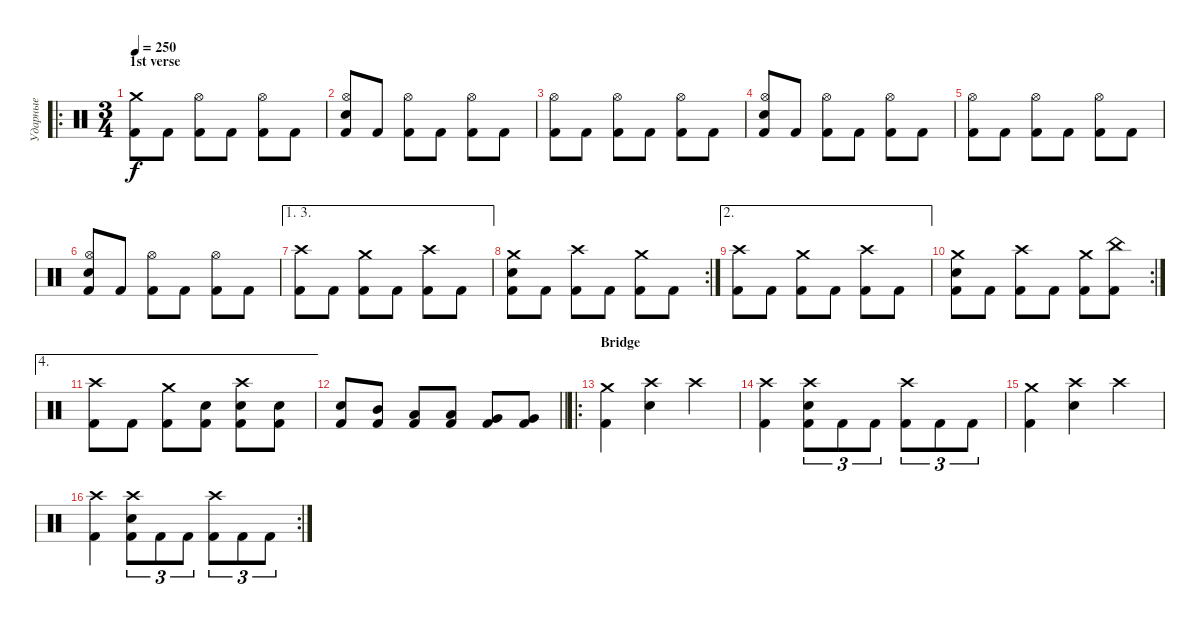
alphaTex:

\track ("Ударные" "Ударные") {instrument percussion}
\staff {score}
\articulation defaults
\ro
\ts (3 4)
\section ("" "1st verse")
\tempo 250
\clef neutral
\ks c
("Crash medium (hit)" "Kick (hit) 2").8{dy f} "Kick (hit) 2".8 ("Hi-Hat (open)" "Kick (hit) 2").8 "Kick (hit) 2".8 ("Hi-Hat (open)" "Kick (hit) 2").8 "Kick (hit) 2".8 |
("Electric Snare (hit)" "Hi-Hat (open)" "Kick (hit) 2").8 "Kick (hit) 2".8 ("Hi-Hat (open)" "Kick (hit) 2").8 "Kick (hit) 2".8 ("Hi-Hat (open)" "Kick (hit) 2").8 "Kick (hit) 2".8 |
("Hi-Hat (open)" "Kick (hit) 2").8 "Kick (hit) 2".8 ("Hi-Hat (open)" "Kick (hit) 2").8 "Kick (hit) 2".8 ("Hi-Hat (open)" "Kick (hit) 2").8 "Kick (hit) 2".8 |
("Electric Snare (hit)" "Hi-Hat (open)" "Kick (hit) 2").8 "Kick (hit) 2".8 ("Hi-Hat (open)" "Kick (hit) 2").8 "Kick (hit) 2".8 ("Hi-Hat (open)" "Kick (hit) 2").8 "Kick (hit) 2".8 |
("Hi-Hat (open)" "Kick (hit) 2").8 "Kick (hit) 2".8 ("Hi-Hat (open)" "Kick (hit) 2").8 "Kick (hit) 2".8 ("Hi-Hat (open)" "Kick (hit) 2").8 "Kick (hit) 2".8 |
("Electric Snare (hit)" "Hi-Hat (open)" "Kick (hit) 2").8 "Kick (hit) 2".8 ("Hi-Hat (open)" "Kick (hit) 2").8 "Kick (hit) 2".8 ("Hi-Hat (open)" "Kick (hit) 2").8 "Kick (hit) 2".8 |
\ae (1 3)
("Crash high (hit)" "Kick (hit) 2").8 "Kick (hit) 2".8 ("Crash medium (hit)" "Kick (hit) 2").8 "Kick (hit) 2".8 ("Crash high (hit)" "Kick (hit) 2").8 "Kick (hit) 2".8 |
\rc 2
("Electric Snare (hit)" "Crash medium (hit)" "Kick (hit) 2").8 "Kick (hit) 2".8 ("Crash high (hit)" "Kick (hit) 2").8 "Kick (hit) 2".8 ("Crash medium (hit)" "Kick (hit) 2").8 "Kick (hit) 2".8 |
\ae 2
("Crash high (hit)" "Kick (hit) 2").8 "Kick (hit) 2".8 ("Crash medium (hit)" "Kick (hit) 2").8 "Kick (hit) 2".8 ("Crash high (hit)" "Kick (hit) 2").8 "Kick (hit) 2".8 |
\rc 2
("Electric Snare (hit)" "Crash medium (hit)" "Kick (hit) 2").8 "Kick (hit) 2".8 ("Crash high (hit)" "Kick (hit) 2").8 "Kick (hit) 2".8 ("Crash medium (hit)" "Kick (hit) 2").8 ("China (hit)" "Kick (hit) 2").8 |
\ae 4
("Crash high (hit)" "Kick (hit) 2").8 "Kick (hit) 2".8 ("Crash medium (hit)" "Kick (hit) 2").8 ("Electric Snare (hit)" "Kick (hit) 2").8 ("Electric Snare (hit)" "Crash high (hit)" "Kick (hit) 2").8 ("Electric Snare (hit)" "Kick (hit) 2").8 |
\barLineRight lightlight
("Electric Snare (hit)" "Kick (hit) 2").8 ("Mid Tom (hit)" "Kick (hit) 2").8 ("Low Tom (hit)" "Kick (hit) 2").8 ("Low Tom (hit)" "Kick (hit) 2").8 ("Very Low Tom (hit)" "Kick (hit) 2").8 ("Very Low Tom (hit)" "Kick (hit) 2").8 |
\ro
\section ("" "Bridge")
("Crash medium (hit)" "Kick (hit) 2").4 ("Crash high (hit)" "Electric Snare (hit)").4 "Crash high (hit)".4 |
("Crash high (hit)" "Kick (hit) 2").4 ("Electric Snare (hit)" "Crash high (hit)" "Kick (hit) 2").8{tu (3 2)} "Kick (hit) 2".8{tu (3 2)} "Kick (hit) 2".8{tu (3 2)} ("Crash high (hit)" "Kick (hit) 2").8{tu (3 2)} "Kick (hit) 2".8{tu (3 2)} "Kick (hit) 2".8{tu (3 2)} |
("Crash medium (hit)" "Kick (hit) 2").4 ("Crash high (hit)" "Electric Snare (hit)").4 "Crash high (hit)".4 |
\rc 2
("Crash high (hit)" "Kick (hit) 2").4 ("Electric Snare (hit)" "Crash high (hit)" "Kick (hit) 2").8{tu (3 2)} "Kick (hit) 2".8{tu (3 2)} "Kick (hit) 2".8{tu (3 2)} ("Crash high (hit)" "Kick (hit) 2").8{tu (3 2)} "Kick (hit) 2".8{tu (3 2)} "Kick (hit) 2".8{tu (3 2)}
